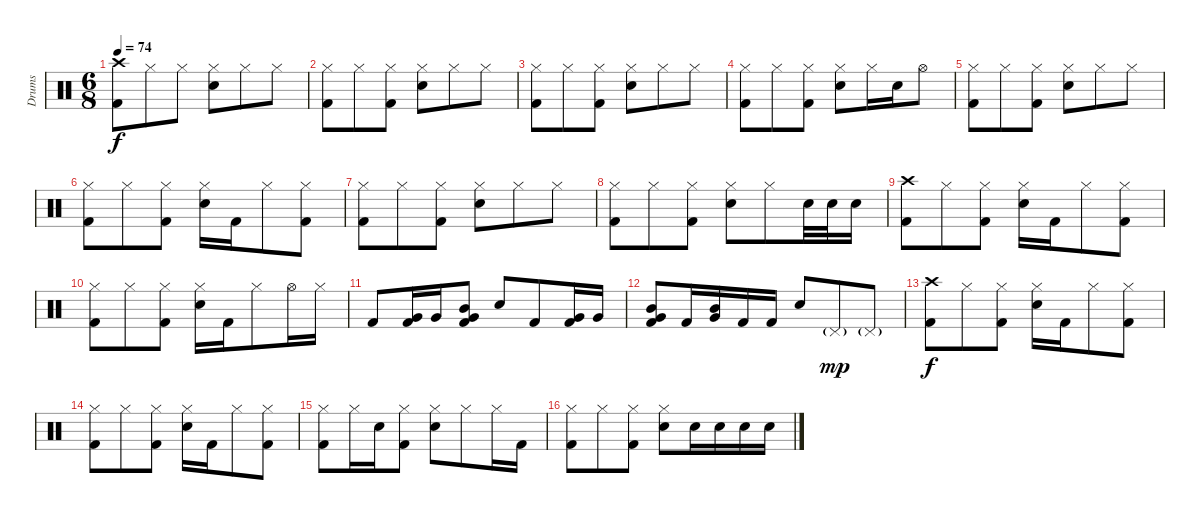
\track ("Drums" "Drums") {instrument percussion}
\staff {score}
\articulation defaults
\ts (6 8)
\tempo 74
\clef neutral
\ks c
("Crash high (hit)" "Kick (hit) 2").8{dy f} "Hi-Hat (closed)".8 "Hi-Hat (closed)".8 ("Hi-Hat (closed)" "Electric Snare (hit)").8 "Hi-Hat (closed)".8 "Hi-Hat (closed)".8 |
("Hi-Hat (closed)" "Kick (hit) 2").8 "Hi-Hat (closed)".8 ("Hi-Hat (closed)" "Kick (hit) 2").8 ("Hi-Hat (closed)" "Electric Snare (hit)").8 "Hi-Hat (closed)".8 "Hi-Hat (closed)".8 |
("Hi-Hat (closed)" "Kick (hit) 2").8 "Hi-Hat (closed)".8 ("Hi-Hat (closed)" "Kick (hit) 2").8 ("Hi-Hat (closed)" "Electric Snare (hit)").8 "Hi-Hat (closed)".8 "Hi-Hat (closed)".8 |
("Hi-Hat (closed)" "Kick (hit) 2").8 "Hi-Hat (closed)".8 ("Hi-Hat (closed)" "Kick (hit) 2").8 ("Hi-Hat (closed)" "Electric Snare (hit)").8 "Hi-Hat (closed)".16 "Electric Snare (hit)".16 "Hi-Hat (open)".8 |
("Hi-Hat (closed)" "Kick (hit) 2").8 "Hi-Hat (closed)".8 ("Hi-Hat (closed)" "Kick (hit) 2").8 ("Hi-Hat (closed)" "Electric Snare (hit)").8 "Hi-Hat (closed)".8 "Hi-Hat (closed)".8 |
("Hi-Hat (closed)" "Kick (hit) 2").8 "Hi-Hat (closed)".8 ("Hi-Hat (closed)" "Kick (hit) 2").8 ("Hi-Hat (closed)" "Electric Snare (hit)").16 "Kick (hit) 2".16 "Hi-Hat (closed)".8 ("Hi-Hat (closed)" "Kick (hit) 2").8 |
("Hi-Hat (closed)" "Kick (hit) 2").8 "Hi-Hat (closed)".8 ("Hi-Hat (closed)" "Kick (hit) 2").8 ("Hi-Hat (closed)" "Electric Snare (hit)").8 "Hi-Hat (closed)".8 "Hi-Hat (closed)".8 |
("Hi-Hat (closed)" "Kick (hit) 2").8 "Hi-Hat (closed)".8 ("Hi-Hat (closed)" "Kick (hit) 2").8 ("Hi-Hat (closed)" "Electric Snare (hit)").8 "Hi-Hat (closed)".8 "Electric Snare (hit)".32 "Electric Snare (hit)".32 "Electric Snare (hit)".16 |
("Crash high (hit)" "Kick (hit) 2").8 "Hi-Hat (closed)".8 ("Hi-Hat (closed)" "Kick (hit) 2").8 ("Hi-Hat (closed)" "Electric Snare (hit)").16 "Kick (hit) 2".16 "Hi-Hat (closed)".8 ("Hi-Hat (closed)" "Kick (hit) 2").8 |
("Hi-Hat (closed)" "Kick (hit) 2").8 "Hi-Hat (closed)".8 ("Hi-Hat (closed)" "Kick (hit) 2").8 ("Hi-Hat (closed)" "Electric Snare (hit)").16 "Kick (hit) 2".16 "Hi-Hat (closed)".8 "Hi-Hat (open)".16 "Hi-Hat (closed)".16 |
"Kick (hit) 2".8 ("Very Low Tom (hit)" "Kick (hit) 2").16 "Very Low Tom (hit)".16 ("Mid Tom (hit)" "Very Low Tom (hit)" "Kick (hit) 2").8 "Electric Snare (hit)".8 "Kick (hit) 2".8 ("Very Low Tom (hit)" "Kick (hit) 2").16 "Very Low Tom (hit)".16 |
("Mid Tom (hit)" "Very Low Tom (hit)" "Kick (hit) 2").8 "Kick (hit) 2".16 ("Mid Tom (hit)" "Very Low Tom (hit)").16 "Kick (hit) 2".16 "Kick (hit) 2".16 "Electric Snare (hit)".8 "Pedal Hi-Hat (hit)"{g}.8{dy mp} "Pedal Hi-Hat (hit)"{g}.8 |
("Crash high (hit)" "Kick (hit) 2").8{dy f} "Hi-Hat (closed)".8 ("Hi-Hat (closed)" "Kick (hit) 2").8 ("Hi-Hat (closed)" "Electric Snare (hit)").16 "Kick (hit) 2".16 "Hi-Hat (closed)".8 ("Hi-Hat (closed)" "Kick (hit) 2").8 |
("Hi-Hat (closed)" "Kick (hit) 2").8 "Hi-Hat (closed)".8 ("Hi-Hat (closed)" "Kick (hit) 2").8 ("Hi-Hat (closed)" "Electric Snare (hit)").16 "Kick (hit) 2".16 "Hi-Hat (closed)".8 ("Hi-Hat (closed)" "Kick (hit) 2").8 |
("Hi-Hat (closed)" "Kick (hit) 2").8 "Hi-Hat (closed)".16 "Electric Snare (hit)".16 ("Hi-Hat (closed)" "Kick (hit) 2").8 ("Hi-Hat (closed)" "Electric Snare (hit)").8 "Hi-Hat (closed)".8 "Hi-Hat (closed)".16 "Kick (hit) 2".16 |
("Hi-Hat (closed)" "Kick (hit) 2").8 "Hi-Hat (closed)".8 ("Hi-Hat (closed)" "Kick (hit) 2").8 ("Hi-Hat (closed)" "Electric Snare (hit)").8 "Electric Snare (hit)".16 "Electric Snare (hit)".16 "Electric Snare (hit)".16 "Electric Snare (hit)".16
